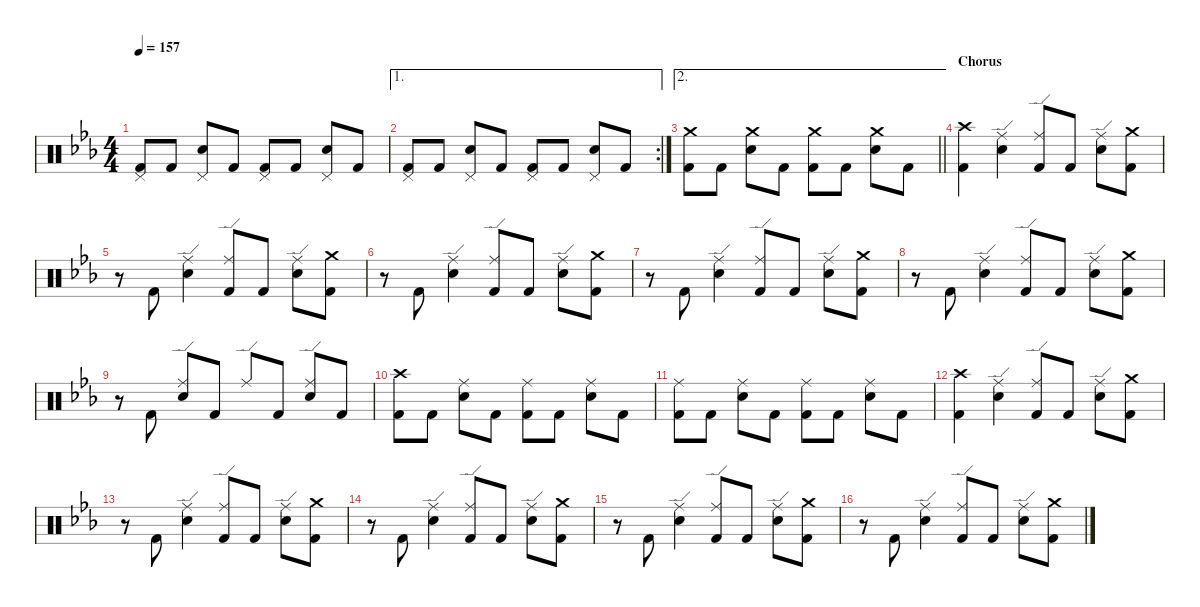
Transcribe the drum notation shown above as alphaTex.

\defaultSystemsLayout 4
\hideDynamics
\bracketExtendMode nobrackets
\singleTrackTrackNamePolicy hidden
\multiTrackTrackNamePolicy hidden
\firstSystemTrackNameMode fullname
\firstSystemTrackNameOrientation horizontal
\otherSystemsTrackNameOrientation horizontal
\track ("Drums" "drm.") {instrument percussion}
\staff {score}
\articulation defaults
\ts (4 4)
\tempo 157
\clef neutral
\ks cminor
("Pedal Hi-Hat (hit)"{acc forcenatural} "Kick (hit) 2"{acc forcenatural}).8{dy f beam Up} "Kick (hit) 2"{acc forcenatural}.8{beam Up} ("Pedal Hi-Hat (hit)"{acc forcenatural} "Snare (hit) 2"{acc forcenatural}).8{beam Up} "Kick (hit) 2"{acc forcenatural}.8{beam Up} ("Pedal Hi-Hat (hit)"{acc forcenatural} "Kick (hit) 2"{acc forcenatural}).8{beam Up} "Kick (hit) 2"{acc forcenatural}.8{beam Up} ("Pedal Hi-Hat (hit)"{acc forcenatural} "Snare (hit) 2"{acc forcenatural}).8{beam Up} "Kick (hit) 2"{acc forcenatural}.8{beam Up} |
\ae 1
\rc 2
("Pedal Hi-Hat (hit)"{acc forcenatural} "Kick (hit) 2"{acc forcenatural}).8{beam Up} "Kick (hit) 2"{acc forcenatural}.8{beam Up} ("Pedal Hi-Hat (hit)"{acc forcenatural} "Snare (hit) 2"{acc forcenatural}).8{beam Up} "Kick (hit) 2"{acc forcenatural}.8{beam Up} ("Pedal Hi-Hat (hit)"{acc forcenatural} "Kick (hit) 2"{acc forcenatural}).8{beam Up} "Kick (hit) 2"{acc forcenatural}.8{beam Up} ("Pedal Hi-Hat (hit)"{acc forcenatural} "Snare (hit) 2"{acc forcenatural}).8{beam Up} "Kick (hit) 2"{acc forcenatural}.8{beam Up} |
\ae 2
\barLineRight lightlight
("Crash medium (hit)"{acc forcenatural} "Kick (hit) 2"{acc forcenatural}).8{dy mp beam Down} "Kick (hit) 2"{acc forcenatural}.8{dy f beam Down} ("Crash medium (hit)"{acc forcenatural} "Snare (hit) 2"{acc forcenatural}).8{dy mf beam Down} "Kick (hit) 2"{acc forcenatural}.8{dy f beam Down} ("Crash medium (hit)"{acc forcenatural} "Kick (hit) 2"{acc forcenatural}).8{dy mp beam Down} "Kick (hit) 2"{acc forcenatural}.8{dy f beam Down} ("Crash medium (hit)"{acc forcenatural} "Snare (hit) 2"{acc forcenatural}).8{beam Down} "Kick (hit) 2"{acc forcenatural}.8{beam Down} |
\section ("" "Chorus")
("Crash high (hit)"{acc forcenatural} "Kick (hit) 2"{acc forcenatural}).4{beam Down} ("Ride (edge)"{acc forcenatural} "Snare (hit) 2"{acc forcenatural}).4{beam Down} ("Ride (edge)"{acc forcenatural} "Kick (hit) 2"{acc forcenatural}).8{beam Up} "Kick (hit) 2"{acc forcenatural}.8{beam Up} ("Ride (edge)"{acc forcenatural} "Snare (hit) 2"{acc forcenatural}).8{beam Down} ("Crash medium (hit)"{acc forcenatural} "Kick (hit) 2"{acc forcenatural}).8{beam Down} |
r.8{beam Down} "Kick (hit) 2"{acc forcenatural}.8{beam Up} ("Ride (edge)"{acc forcenatural} "Snare (hit) 2"{acc forcenatural}).4{beam Down} ("Ride (edge)"{acc forcenatural} "Kick (hit) 2"{acc forcenatural}).8{beam Up} "Kick (hit) 2"{acc forcenatural}.8{beam Up} ("Ride (edge)"{acc forcenatural} "Snare (hit) 2"{acc forcenatural}).8{beam Down} ("Crash medium (hit)"{acc forcenatural} "Kick (hit) 2"{acc forcenatural}).8{beam Down} |
r.8{beam Down} "Kick (hit) 2"{acc forcenatural}.8{beam Up} ("Ride (edge)"{acc forcenatural} "Snare (hit) 2"{acc forcenatural}).4{beam Down} ("Ride (edge)"{acc forcenatural} "Kick (hit) 2"{acc forcenatural}).8{beam Up} "Kick (hit) 2"{acc forcenatural}.8{beam Up} ("Ride (edge)"{acc forcenatural} "Snare (hit) 2"{acc forcenatural}).8{beam Down} ("Crash medium (hit)"{acc forcenatural} "Kick (hit) 2"{acc forcenatural}).8{beam Down} |
r.8{beam Down} "Kick (hit) 2"{acc forcenatural}.8{beam Up} ("Ride (edge)"{acc forcenatural} "Snare (hit) 2"{acc forcenatural}).4{beam Down} ("Ride (edge)"{acc forcenatural} "Kick (hit) 2"{acc forcenatural}).8{beam Up} "Kick (hit) 2"{acc forcenatural}.8{beam Up} ("Ride (edge)"{acc forcenatural} "Snare (hit) 2"{acc forcenatural}).8{beam Down} ("Crash medium (hit)"{acc forcenatural} "Kick (hit) 2"{acc forcenatural}).8{beam Down} |
r.8{beam Down} "Kick (hit) 2"{acc forcenatural}.8{beam Up} ("Ride (edge)"{acc forcenatural} "Snare (hit) 2"{acc forcenatural}).4{beam Down} ("Ride (edge)"{acc forcenatural} "Kick (hit) 2"{acc forcenatural}).8{beam Up} "Kick (hit) 2"{acc forcenatural}.8{beam Up} ("Ride (edge)"{acc forcenatural} "Snare (hit) 2"{acc forcenatural}).8{beam Down} ("Crash medium (hit)"{acc forcenatural} "Kick (hit) 2"{acc forcenatural}).8{beam Down} |
r.8{beam Down} "Kick (hit) 2"{acc forcenatural}.8{beam Up} ("Ride (edge)"{acc forcenatural} "Snare (hit) 2"{acc forcenatural}).8{beam Up} "Kick (hit) 2"{acc forcenatural}.8{beam Up} "Ride (edge)"{acc forcenatural}.8{beam Up} "Kick (hit) 2"{acc forcenatural}.8{beam Up} ("Ride (edge)"{acc forcenatural} "Snare (hit) 2"{acc forcenatural}).8{beam Up} "Kick (hit) 2"{acc forcenatural}.8{beam Up} |
("Crash high (hit)"{acc forcenatural} "Kick (hit) 2"{acc forcenatural}).8{beam Down} "Kick (hit) 2"{acc forcenatural}.8{beam Down} ("Ride (middle)"{acc forcenatural} "Snare (hit) 2"{acc forcenatural}).8{beam Down} "Kick (hit) 2"{acc forcenatural}.8{beam Down} ("Ride (middle)"{acc forcenatural} "Kick (hit) 2"{acc forcenatural}).8{beam Down} "Kick (hit) 2"{acc forcenatural}.8{beam Down} ("Ride (middle)"{acc forcenatural} "Snare (hit) 2"{acc forcenatural}).8{beam Down} "Kick (hit) 2"{acc forcenatural}.8{beam Down} |
("Ride (middle)"{acc forcenatural} "Kick (hit) 2"{acc forcenatural}).8{beam Down} "Kick (hit) 2"{acc forcenatural}.8{beam Down} ("Ride (middle)"{acc forcenatural} "Snare (hit) 2"{acc forcenatural}).8{beam Down} "Kick (hit) 2"{acc forcenatural}.8{beam Down} ("Ride (middle)"{acc forcenatural} "Kick (hit) 2"{acc forcenatural}).8{beam Down} "Kick (hit) 2"{acc forcenatural}.8{beam Down} ("Ride (middle)"{acc forcenatural} "Snare (hit) 2"{acc forcenatural}).8{beam Down} "Kick (hit) 2"{acc forcenatural}.8{beam Down} |
("Crash high (hit)"{acc forcenatural} "Kick (hit) 2"{acc forcenatural}).4{beam Down} ("Ride (edge)"{acc forcenatural} "Snare (hit) 2"{acc forcenatural}).4{beam Down} ("Ride (edge)"{acc forcenatural} "Kick (hit) 2"{acc forcenatural}).8{beam Up} "Kick (hit) 2"{acc forcenatural}.8{beam Up} ("Ride (edge)"{acc forcenatural} "Snare (hit) 2"{acc forcenatural}).8{beam Down} ("Crash medium (hit)"{acc forcenatural} "Kick (hit) 2"{acc forcenatural}).8{beam Down} |
r.8{beam Down} "Kick (hit) 2"{acc forcenatural}.8{beam Up} ("Ride (edge)"{acc forcenatural} "Snare (hit) 2"{acc forcenatural}).4{beam Down} ("Ride (edge)"{acc forcenatural} "Kick (hit) 2"{acc forcenatural}).8{beam Up} "Kick (hit) 2"{acc forcenatural}.8{beam Up} ("Ride (edge)"{acc forcenatural} "Snare (hit) 2"{acc forcenatural}).8{beam Down} ("Crash medium (hit)"{acc forcenatural} "Kick (hit) 2"{acc forcenatural}).8{beam Down} |
r.8{beam Down} "Kick (hit) 2"{acc forcenatural}.8{beam Up} ("Ride (edge)"{acc forcenatural} "Snare (hit) 2"{acc forcenatural}).4{beam Down} ("Ride (edge)"{acc forcenatural} "Kick (hit) 2"{acc forcenatural}).8{beam Up} "Kick (hit) 2"{acc forcenatural}.8{beam Up} ("Ride (edge)"{acc forcenatural} "Snare (hit) 2"{acc forcenatural}).8{beam Down} ("Crash medium (hit)"{acc forcenatural} "Kick (hit) 2"{acc forcenatural}).8{beam Down} |
r.8{beam Down} "Kick (hit) 2"{acc forcenatural}.8{beam Up} ("Ride (edge)"{acc forcenatural} "Snare (hit) 2"{acc forcenatural}).4{beam Down} ("Ride (edge)"{acc forcenatural} "Kick (hit) 2"{acc forcenatural}).8{beam Up} "Kick (hit) 2"{acc forcenatural}.8{beam Up} ("Ride (edge)"{acc forcenatural} "Snare (hit) 2"{acc forcenatural}).8{beam Down} ("Crash medium (hit)"{acc forcenatural} "Kick (hit) 2"{acc forcenatural}).8{beam Down} |
r.8{beam Down} "Kick (hit) 2"{acc forcenatural}.8{beam Up} ("Ride (edge)"{acc forcenatural} "Snare (hit) 2"{acc forcenatural}).4{beam Down} ("Ride (edge)"{acc forcenatural} "Kick (hit) 2"{acc forcenatural}).8{beam Up} "Kick (hit) 2"{acc forcenatural}.8{beam Up} ("Ride (edge)"{acc forcenatural} "Snare (hit) 2"{acc forcenatural}).8{beam Down} ("Crash medium (hit)"{acc forcenatural} "Kick (hit) 2"{acc forcenatural}).8{beam Down}
